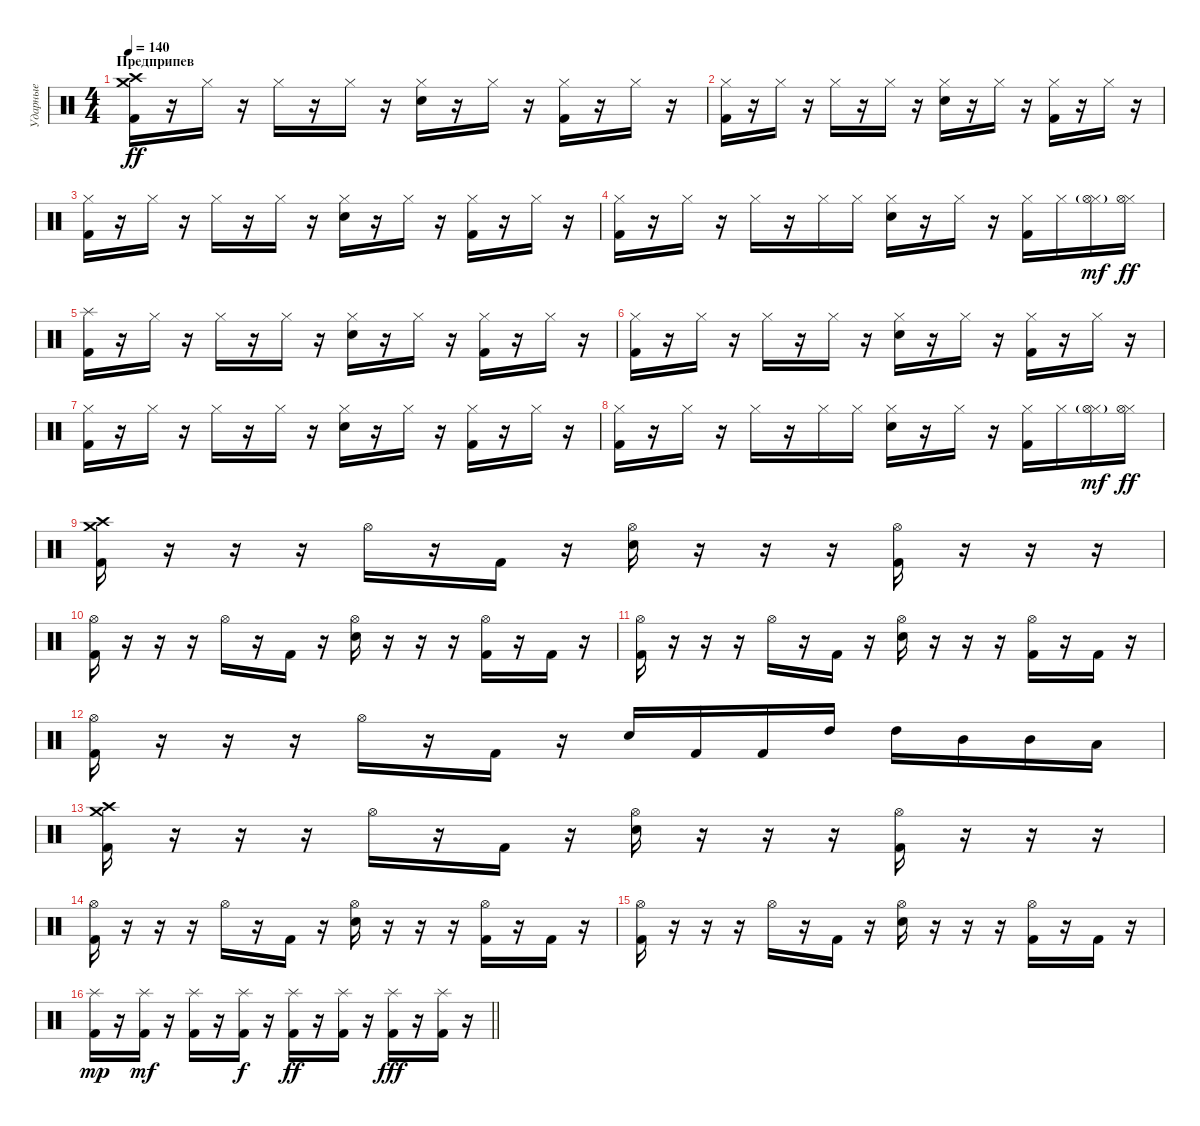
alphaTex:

\track ("Ударные" "Ударные") {instrument percussion}
\staff {score}
\articulation defaults
\ts (4 4)
\section ("" "Предприпев")
\tempo 140
\clef neutral
\ks c
("Crash medium (hit)" "Kick (hit) 2" "Crash high (hit)").16{dy ff} r.16 "Hi-Hat (closed)".16 r.16 "Hi-Hat (closed)".16 r.16 "Hi-Hat (closed)".16 r.16 ("Electric Snare (hit)" "Hi-Hat (closed)").16 r.16 "Hi-Hat (closed)".16 r.16 ("Hi-Hat (closed)" "Kick (hit) 2").16 r.16 "Hi-Hat (closed)".16 r.16 |
("Hi-Hat (closed)" "Kick (hit) 2").16 r.16 "Hi-Hat (closed)".16 r.16 "Hi-Hat (closed)".16 r.16 "Hi-Hat (closed)".16 r.16 ("Electric Snare (hit)" "Hi-Hat (closed)").16 r.16 "Hi-Hat (closed)".16 r.16 ("Hi-Hat (closed)" "Kick (hit) 2").16 r.16 "Hi-Hat (closed)".16 r.16 |
("Hi-Hat (closed)" "Kick (hit) 2").16 r.16 "Hi-Hat (closed)".16 r.16 "Hi-Hat (closed)".16 r.16 "Hi-Hat (closed)".16 r.16 ("Electric Snare (hit)" "Hi-Hat (closed)").16 r.16 "Hi-Hat (closed)".16 r.16 ("Hi-Hat (closed)" "Kick (hit) 2").16 r.16 "Hi-Hat (closed)".16 r.16 |
("Hi-Hat (closed)" "Kick (hit) 2").16 r.16 "Hi-Hat (closed)".16 r.16 "Hi-Hat (closed)".16 r.16 "Hi-Hat (closed)".16 "Hi-Hat (closed)".16 ("Electric Snare (hit)" "Hi-Hat (closed)").16 r.16 "Hi-Hat (closed)".16 r.16 ("Hi-Hat (closed)" "Kick (hit) 2").16 "Hi-Hat (closed)".16 ("Hi-Hat (closed)" "Hi-Hat (open)"{g}).16{dy mf} ("Hi-Hat (closed)" "Hi-Hat (open)").16{dy ff} |
("Splash (hit)" "Kick (hit) 2").16 r.16 "Hi-Hat (closed)".16 r.16 "Hi-Hat (closed)".16 r.16 "Hi-Hat (closed)".16 r.16 ("Electric Snare (hit)" "Hi-Hat (closed)").16 r.16 "Hi-Hat (closed)".16 r.16 ("Hi-Hat (closed)" "Kick (hit) 2").16 r.16 "Hi-Hat (closed)".16 r.16 |
("Hi-Hat (closed)" "Kick (hit) 2").16 r.16 "Hi-Hat (closed)".16 r.16 "Hi-Hat (closed)".16 r.16 "Hi-Hat (closed)".16 r.16 ("Electric Snare (hit)" "Hi-Hat (closed)").16 r.16 "Hi-Hat (closed)".16 r.16 ("Hi-Hat (closed)" "Kick (hit) 2").16 r.16 "Hi-Hat (closed)".16 r.16 |
("Hi-Hat (closed)" "Kick (hit) 2").16 r.16 "Hi-Hat (closed)".16 r.16 "Hi-Hat (closed)".16 r.16 "Hi-Hat (closed)".16 r.16 ("Electric Snare (hit)" "Hi-Hat (closed)").16 r.16 "Hi-Hat (closed)".16 r.16 ("Hi-Hat (closed)" "Kick (hit) 2").16 r.16 "Hi-Hat (closed)".16 r.16 |
("Hi-Hat (closed)" "Kick (hit) 2").16 r.16 "Hi-Hat (closed)".16 r.16 "Hi-Hat (closed)".16 r.16 "Hi-Hat (closed)".16 "Hi-Hat (closed)".16 ("Electric Snare (hit)" "Hi-Hat (closed)").16 r.16 "Hi-Hat (closed)".16 r.16 ("Hi-Hat (closed)" "Kick (hit) 2").16 "Hi-Hat (closed)".16 ("Hi-Hat (closed)" "Hi-Hat (open)"{g}).16{dy mf} ("Hi-Hat (closed)" "Hi-Hat (open)").16{dy ff} |
("Crash medium (hit)" "Kick (hit) 2" "Crash high (hit)").16 r.16 r.16 r.16 "Hi-Hat (open)".16 r.16 "Kick (hit) 2".16 r.16 ("Electric Snare (hit)" "Hi-Hat (open)").16 r.16 r.16 r.16 ("Hi-Hat (open)" "Kick (hit) 2").16 r.16 r.16 r.16 |
("Hi-Hat (open)" "Kick (hit) 2").16 r.16 r.16 r.16 "Hi-Hat (open)".16 r.16 "Kick (hit) 2".16 r.16 ("Electric Snare (hit)" "Hi-Hat (open)").16 r.16 r.16 r.16 ("Hi-Hat (open)" "Kick (hit) 2").16 r.16 "Kick (hit) 2".16 r.16 |
("Hi-Hat (open)" "Kick (hit) 2").16 r.16 r.16 r.16 "Hi-Hat (open)".16 r.16 "Kick (hit) 2".16 r.16 ("Electric Snare (hit)" "Hi-Hat (open)").16 r.16 r.16 r.16 ("Hi-Hat (open)" "Kick (hit) 2").16 r.16 "Kick (hit) 2".16 r.16 |
("Hi-Hat (open)" "Kick (hit) 2").16 r.16 r.16 r.16 "Hi-Hat (open)".16 r.16 "Kick (hit) 2".16 r.16 "Electric Snare (hit)".16 "Kick (hit) 2".16 "Kick (hit) 2".16 "High Tom (hit)".16 "High Tom (hit)".16 "Mid Tom (hit)".16 "Mid Tom (hit)".16 "Low Tom (hit)".16 |
("Crash medium (hit)" "Kick (hit) 2" "Crash high (hit)").16 r.16 r.16 r.16 "Hi-Hat (open)".16 r.16 "Kick (hit) 2".16 r.16 ("Electric Snare (hit)" "Hi-Hat (open)").16 r.16 r.16 r.16 ("Hi-Hat (open)" "Kick (hit) 2").16 r.16 r.16 r.16 |
("Hi-Hat (open)" "Kick (hit) 2").16 r.16 r.16 r.16 "Hi-Hat (open)".16 r.16 "Kick (hit) 2".16 r.16 ("Electric Snare (hit)" "Hi-Hat (open)").16 r.16 r.16 r.16 ("Hi-Hat (open)" "Kick (hit) 2").16 r.16 "Kick (hit) 2".16 r.16 |
("Hi-Hat (open)" "Kick (hit) 2").16 r.16 r.16 r.16 "Hi-Hat (open)".16 r.16 "Kick (hit) 2".16 r.16 ("Electric Snare (hit)" "Hi-Hat (open)").16 r.16 r.16 r.16 ("Hi-Hat (open)" "Kick (hit) 2").16 r.16 "Kick (hit) 2".16 r.16 |
\barLineRight lightlight
("Splash (hit)" "Kick (hit) 2").16{dy mp} r.16 ("Splash (hit)" "Kick (hit) 2").16{dy mf} r.16 ("Splash (hit)" "Kick (hit) 2").16 r.16 ("Splash (hit)" "Kick (hit) 2").16{dy f} r.16 ("Splash (hit)" "Kick (hit) 2").16{dy ff} r.16 ("Splash (hit)" "Kick (hit) 2").16 r.16 ("Splash (hit)" "Kick (hit) 2").16{dy fff} r.16 ("Splash (hit)" "Kick (hit) 2").16 r.16
